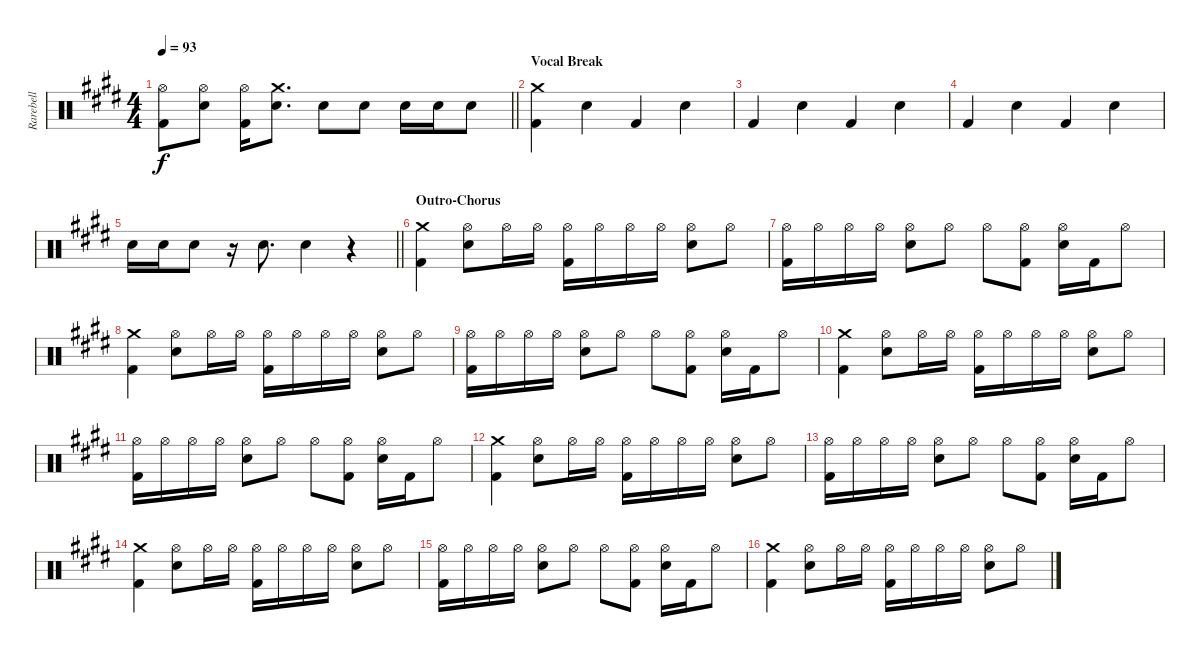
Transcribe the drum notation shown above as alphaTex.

\track ("Rarebell" "Rarebell") {instrument percussion}
\staff {score}
\articulation defaults
\ts (4 4)
\tempo 93
\clef neutral
\barLineRight lightlight
\ks e
("Hi-Hat (open)" "Kick (hit) 2").8{dy f} ("Hi-Hat (open)" "Snare (hit) 2").8 ("Hi-Hat (open)" "Kick (hit) 2").16 ("Crash medium (hit)" "Snare (hit) 2").8{d} "Snare (hit) 2".8 "Snare (hit) 2".8 "Snare (hit) 2".16 "Snare (hit) 2".16 "Snare (hit) 2".8 |
\section ("" "Vocal Break")
("Crash medium (hit)" "Kick (hit) 2").4 "Snare (hit) 2".4 "Kick (hit) 2".4 "Snare (hit) 2".4 |
"Kick (hit) 2".4 "Snare (hit) 2".4 "Kick (hit) 2".4 "Snare (hit) 2".4 |
"Kick (hit) 2".4 "Snare (hit) 2".4 "Kick (hit) 2".4 "Snare (hit) 2".4 |
\barLineRight lightlight "Snare (hit) 2".16 "Snare (hit) 2".16 "Snare (hit) 2".8
r.16 "Snare (hit) 2".8{d} "Snare (hit) 2".4 r.4 |
\section ("" "Outro-Chorus")
("Crash medium (hit)" "Kick (hit) 2").4 ("Hi-Hat (open)" "Snare (hit) 2").8 "Hi-Hat (open)".16 "Hi-Hat (open)".16 ("Hi-Hat (open)" "Kick (hit) 2").16 "Hi-Hat (open)".16 "Hi-Hat (open)".16 "Hi-Hat (open)".16 ("Hi-Hat (open)" "Snare (hit) 2").8 "Hi-Hat (open)".8 |
("Hi-Hat (open)" "Kick (hit) 2").16 "Hi-Hat (open)".16 "Hi-Hat (open)".16 "Hi-Hat (open)".16 ("Hi-Hat (open)" "Snare (hit) 2").8 "Hi-Hat (open)".8 "Hi-Hat (open)".8 ("Hi-Hat (open)" "Kick (hit) 2").8 ("Hi-Hat (open)" "Snare (hit) 2").16 "Kick (hit) 2".16 "Hi-Hat (open)".8 |
("Crash medium (hit)" "Kick (hit) 2").4 ("Hi-Hat (open)" "Snare (hit) 2").8 "Hi-Hat (open)".16 "Hi-Hat (open)".16 ("Hi-Hat (open)" "Kick (hit) 2").16 "Hi-Hat (open)".16 "Hi-Hat (open)".16 "Hi-Hat (open)".16 ("Hi-Hat (open)" "Snare (hit) 2").8 "Hi-Hat (open)".8 |
("Hi-Hat (open)" "Kick (hit) 2").16 "Hi-Hat (open)".16 "Hi-Hat (open)".16 "Hi-Hat (open)".16 ("Hi-Hat (open)" "Snare (hit) 2").8 "Hi-Hat (open)".8 "Hi-Hat (open)".8 ("Hi-Hat (open)" "Kick (hit) 2").8 ("Hi-Hat (open)" "Snare (hit) 2").16 "Kick (hit) 2".16 "Hi-Hat (open)".8 |
("Crash medium (hit)" "Kick (hit) 2").4 ("Hi-Hat (open)" "Snare (hit) 2").8 "Hi-Hat (open)".16 "Hi-Hat (open)".16 ("Hi-Hat (open)" "Kick (hit) 2").16 "Hi-Hat (open)".16 "Hi-Hat (open)".16 "Hi-Hat (open)".16 ("Hi-Hat (open)" "Snare (hit) 2").8 "Hi-Hat (open)".8 |
("Hi-Hat (open)" "Kick (hit) 2").16 "Hi-Hat (open)".16 "Hi-Hat (open)".16 "Hi-Hat (open)".16 ("Hi-Hat (open)" "Snare (hit) 2").8 "Hi-Hat (open)".8 "Hi-Hat (open)".8 ("Hi-Hat (open)" "Kick (hit) 2").8 ("Hi-Hat (open)" "Snare (hit) 2").16 "Kick (hit) 2".16 "Hi-Hat (open)".8 |
("Crash medium (hit)" "Kick (hit) 2").4 ("Hi-Hat (open)" "Snare (hit) 2").8 "Hi-Hat (open)".16 "Hi-Hat (open)".16 ("Hi-Hat (open)" "Kick (hit) 2").16 "Hi-Hat (open)".16 "Hi-Hat (open)".16 "Hi-Hat (open)".16 ("Hi-Hat (open)" "Snare (hit) 2").8 "Hi-Hat (open)".8 |
("Hi-Hat (open)" "Kick (hit) 2").16 "Hi-Hat (open)".16 "Hi-Hat (open)".16 "Hi-Hat (open)".16 ("Hi-Hat (open)" "Snare (hit) 2").8 "Hi-Hat (open)".8 "Hi-Hat (open)".8 ("Hi-Hat (open)" "Kick (hit) 2").8 ("Hi-Hat (open)" "Snare (hit) 2").16 "Kick (hit) 2".16 "Hi-Hat (open)".8 |
("Crash medium (hit)" "Kick (hit) 2").4 ("Hi-Hat (open)" "Snare (hit) 2").8 "Hi-Hat (open)".16 "Hi-Hat (open)".16 ("Hi-Hat (open)" "Kick (hit) 2").16 "Hi-Hat (open)".16 "Hi-Hat (open)".16 "Hi-Hat (open)".16 ("Hi-Hat (open)" "Snare (hit) 2").8 "Hi-Hat (open)".8 |
("Hi-Hat (open)" "Kick (hit) 2").16 "Hi-Hat (open)".16 "Hi-Hat (open)".16 "Hi-Hat (open)".16 ("Hi-Hat (open)" "Snare (hit) 2").8 "Hi-Hat (open)".8 "Hi-Hat (open)".8 ("Hi-Hat (open)" "Kick (hit) 2").8 ("Hi-Hat (open)" "Snare (hit) 2").16 "Kick (hit) 2".16 "Hi-Hat (open)".8 |
("Crash medium (hit)" "Kick (hit) 2").4 ("Hi-Hat (open)" "Snare (hit) 2").8 "Hi-Hat (open)".16 "Hi-Hat (open)".16 ("Hi-Hat (open)" "Kick (hit) 2").16 "Hi-Hat (open)".16 "Hi-Hat (open)".16 "Hi-Hat (open)".16 ("Hi-Hat (open)" "Snare (hit) 2").8 "Hi-Hat (open)".8
